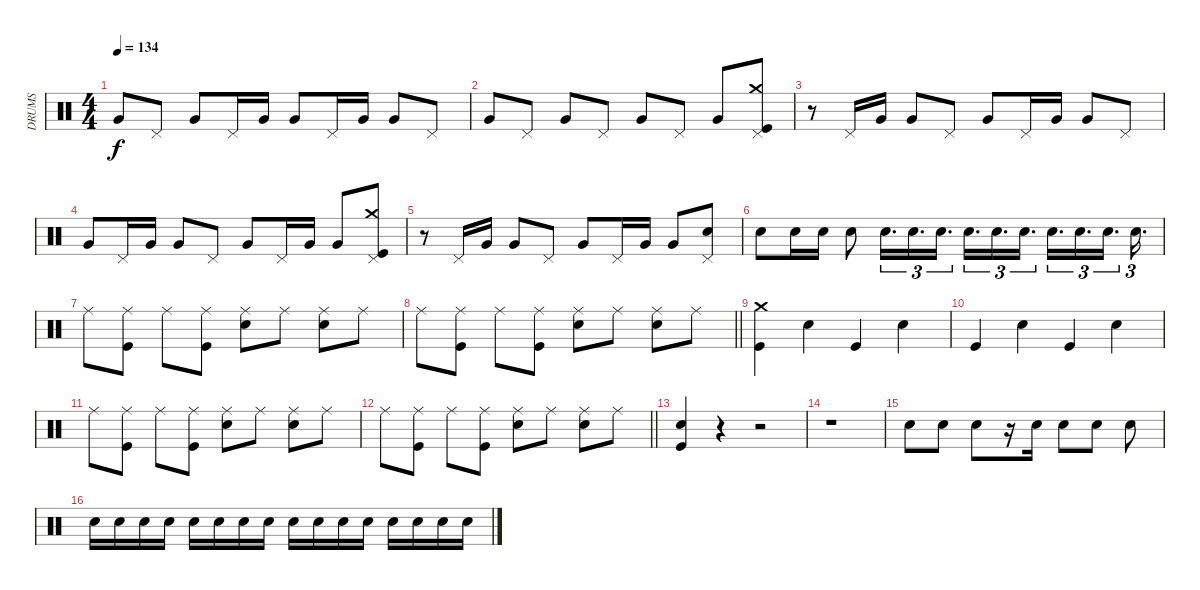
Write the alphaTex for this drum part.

\track ("DRUMS" "DRUMS") {instrument percussion}
\staff {score}
\articulation defaults
\ts (4 4)
\tempo 134
\clef neutral
\ks c "Very Low Tom (hit)".8{dy f} "Pedal Hi-Hat (hit)".8 "Very Low Tom (hit)".8 "Pedal Hi-Hat (hit)".16 "Very Low Tom (hit)".16 "Very Low Tom (hit)".8 "Pedal Hi-Hat (hit)".16 "Very Low Tom (hit)".16 "Very Low Tom (hit)".8 "Pedal Hi-Hat (hit)".8
|
"Very Low Tom (hit)".8 "Pedal Hi-Hat (hit)".8 "Very Low Tom (hit)".8 "Pedal Hi-Hat (hit)".8 "Very Low Tom (hit)".8 "Pedal Hi-Hat (hit)".8 "Very Low Tom (hit)".8 ("Crash medium (hit)" "Pedal Hi-Hat (hit)" "Kick (hit)").8 |
r.8 "Pedal Hi-Hat (hit)".16 "Very Low Tom (hit)".16 "Very Low Tom (hit)".8 "Pedal Hi-Hat (hit)".8 "Very Low Tom (hit)".8 "Pedal Hi-Hat (hit)".16 "Very Low Tom (hit)".16 "Very Low Tom (hit)".8 "Pedal Hi-Hat (hit)".8 |
"Very Low Tom (hit)".8 "Pedal Hi-Hat (hit)".16 "Very Low Tom (hit)".16 "Very Low Tom (hit)".8 "Pedal Hi-Hat (hit)".8 "Very Low Tom (hit)".8 "Pedal Hi-Hat (hit)".16 "Very Low Tom (hit)".16 "Very Low Tom (hit)".8 ("Crash medium (hit)" "Pedal Hi-Hat (hit)" "Kick (hit)").8 |
r.8 "Pedal Hi-Hat (hit)".16 "Very Low Tom (hit)".16 "Very Low Tom (hit)".8 "Pedal Hi-Hat (hit)".8 "Very Low Tom (hit)".8 "Pedal Hi-Hat (hit)".16 "Very Low Tom (hit)".16 "Very Low Tom (hit)".8 ("Pedal Hi-Hat (hit)" "Snare (hit) 2").8 |
"Snare (hit) 2".8 "Snare (hit) 2".16 "Snare (hit) 2".16 "Snare (hit) 2".8 "Snare (hit) 2".16{d tu (3 2)} "Snare (hit) 2".16{d tu (3 2)} "Snare (hit) 2".16{d tu (3 2)} "Snare (hit) 2".16{d tu (3 2)} "Snare (hit) 2".16{d tu (3 2)} "Snare (hit) 2".16{d tu (3 2)} "Snare (hit) 2".16{d tu (3 2)} "Snare (hit) 2".16{d tu (3 2)} "Snare (hit) 2".16{d tu (3 2)} "Snare (hit) 2".16{d tu (3 2)} |
"Ride (middle)".8 ("Ride (middle)" "Kick (hit)").8 "Ride (middle)".8 ("Ride (middle)" "Kick (hit)").8 ("Ride (middle)" "Snare (hit) 2").8 "Ride (middle)".8 ("Ride (middle)" "Snare (hit) 2").8 "Ride (middle)".8 |
\barLineRight lightlight "Ride (middle)".8
("Ride (middle)" "Kick (hit)").8 "Ride (middle)".8 ("Ride (middle)" "Kick (hit)").8 ("Ride (middle)" "Snare (hit) 2").8 "Ride (middle)".8 ("Ride (middle)" "Snare (hit) 2").8 "Ride (middle)".8 |
("Crash medium (hit)" "Kick (hit)").4 "Snare (hit) 2".4 "Kick (hit)".4 "Snare (hit) 2".4 |
"Kick (hit)".4 "Snare (hit) 2".4 "Kick (hit)".4 "Snare (hit) 2".4 |
"Ride (middle)".8 ("Ride (middle)" "Kick (hit)").8 "Ride (middle)".8 ("Ride (middle)" "Kick (hit)").8 ("Ride (middle)" "Snare (hit) 2").8 "Ride (middle)".8 ("Ride (middle)" "Snare (hit) 2").8 "Ride (middle)".8 |
\barLineRight lightlight "Ride (middle)".8
("Ride (middle)" "Kick (hit)").8 "Ride (middle)".8 ("Ride (middle)" "Kick (hit)").8 ("Ride (middle)" "Snare (hit) 2").8 "Ride (middle)".8 ("Ride (middle)" "Snare (hit) 2").8 "Ride (middle)".8 |
("Snare (hit) 2" "Kick (hit)").4 r.4 r.2 |
r.1 |
"Snare (hit) 2".8 "Snare (hit) 2".8 "Snare (hit) 2".8 r.16 "Snare (hit) 2".16 "Snare (hit) 2".8 "Snare (hit) 2".8 "Snare (hit) 2".8 |
"Snare (hit) 2".16 "Snare (hit) 2".16 "Snare (hit) 2".16 "Snare (hit) 2".16 "Snare (hit) 2".16 "Snare (hit) 2".16 "Snare (hit) 2".16 "Snare (hit) 2".16 "Snare (hit) 2".16 "Snare (hit) 2".16 "Snare (hit) 2".16 "Snare (hit) 2".16 "Snare (hit) 2".16 "Snare (hit) 2".16 "Snare (hit) 2".16 "Snare (hit) 2".16
